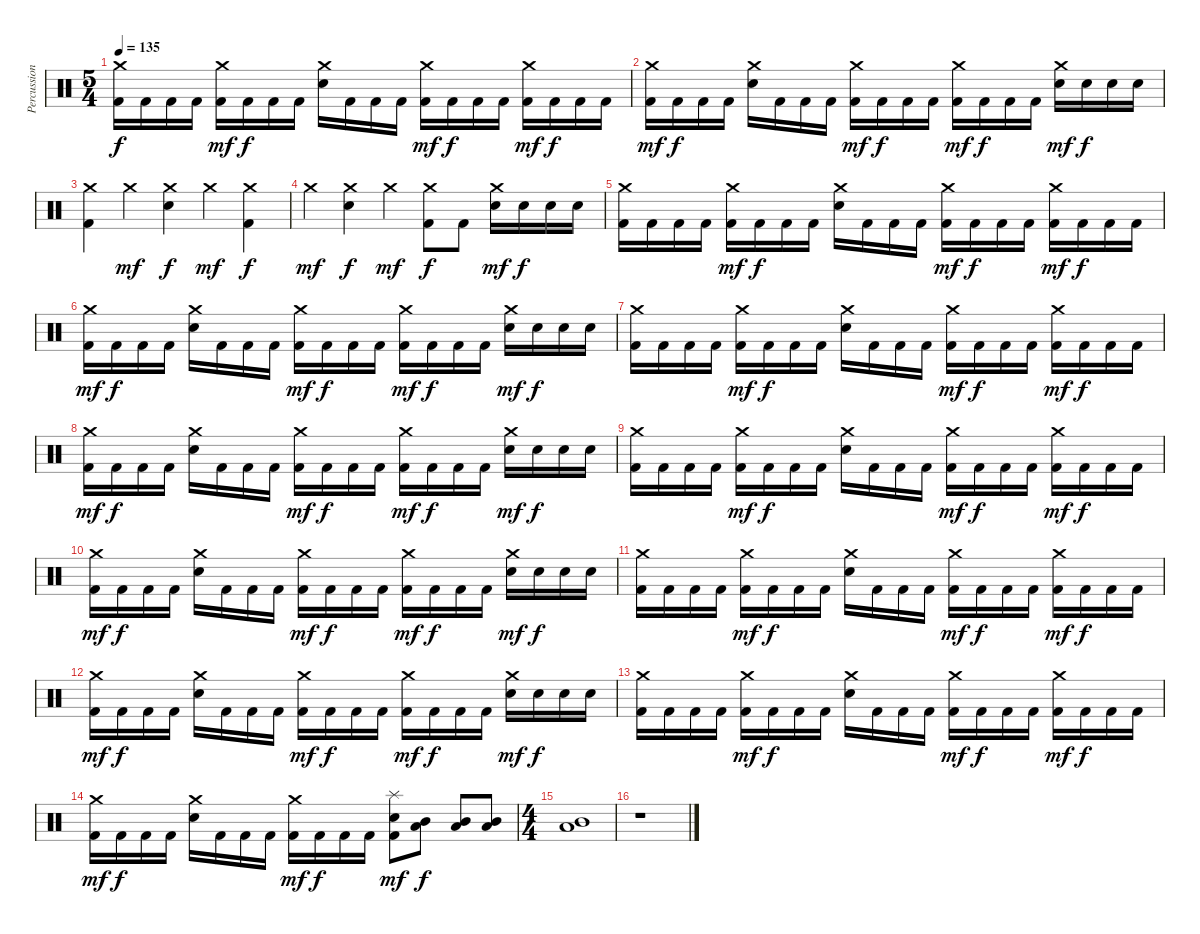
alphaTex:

\track ("Percussion" "Percussion") {instrument percussion}
\staff {score}
\articulation defaults
\ts (5 4)
\tempo 135
\clef neutral
\ks c
("Crash medium (hit)" "Kick (hit) 2").16{dy f} "Kick (hit) 2".16 "Kick (hit) 2".16 "Kick (hit) 2".16 ("Crash medium (hit)" "Kick (hit) 2").16{dy mf} "Kick (hit) 2".16{dy f} "Kick (hit) 2".16 "Kick (hit) 2".16 ("Crash medium (hit)" "Snare (hit) 2").16 "Kick (hit) 2".16 "Kick (hit) 2".16 "Kick (hit) 2".16 ("Crash medium (hit)" "Kick (hit) 2").16{dy mf} "Kick (hit) 2".16{dy f} "Kick (hit) 2".16 "Kick (hit) 2".16 ("Crash medium (hit)" "Kick (hit) 2").16{dy mf} "Kick (hit) 2".16{dy f} "Kick (hit) 2".16 "Kick (hit) 2".16 |
("Crash medium (hit)" "Kick (hit) 2").16{dy mf} "Kick (hit) 2".16{dy f} "Kick (hit) 2".16 "Kick (hit) 2".16 ("Crash medium (hit)" "Snare (hit) 2").16 "Kick (hit) 2".16 "Kick (hit) 2".16 "Kick (hit) 2".16 ("Crash medium (hit)" "Kick (hit) 2").16{dy mf} "Kick (hit) 2".16{dy f} "Kick (hit) 2".16 "Kick (hit) 2".16 ("Crash medium (hit)" "Kick (hit) 2").16{dy mf} "Kick (hit) 2".16{dy f} "Kick (hit) 2".16 "Kick (hit) 2".16 ("Crash medium (hit)" "Snare (hit) 2").16{dy mf} "Snare (hit) 2".16{dy f} "Snare (hit) 2".16 "Snare (hit) 2".16 |
("Crash medium (hit)" "Kick (hit) 2").4 "Crash medium (hit)".4{dy mf} ("Crash medium (hit)" "Snare (hit) 2").4{dy f} "Crash medium (hit)".4{dy mf} ("Crash medium (hit)" "Kick (hit) 2").4{dy f} |
"Crash medium (hit)".4{dy mf} ("Crash medium (hit)" "Snare (hit) 2").4{dy f} "Crash medium (hit)".4{dy mf} ("Crash medium (hit)" "Kick (hit) 2").8{dy f} "Kick (hit) 2".8 ("Crash medium (hit)" "Snare (hit) 2").16{dy mf} "Snare (hit) 2".16{dy f} "Snare (hit) 2".16 "Snare (hit) 2".16 |
("Crash medium (hit)" "Kick (hit) 2").16 "Kick (hit) 2".16 "Kick (hit) 2".16 "Kick (hit) 2".16 ("Crash medium (hit)" "Kick (hit) 2").16{dy mf} "Kick (hit) 2".16{dy f} "Kick (hit) 2".16 "Kick (hit) 2".16 ("Crash medium (hit)" "Snare (hit) 2").16 "Kick (hit) 2".16 "Kick (hit) 2".16 "Kick (hit) 2".16 ("Crash medium (hit)" "Kick (hit) 2").16{dy mf} "Kick (hit) 2".16{dy f} "Kick (hit) 2".16 "Kick (hit) 2".16 ("Crash medium (hit)" "Kick (hit) 2").16{dy mf} "Kick (hit) 2".16{dy f} "Kick (hit) 2".16 "Kick (hit) 2".16 |
("Crash medium (hit)" "Kick (hit) 2").16{dy mf} "Kick (hit) 2".16{dy f} "Kick (hit) 2".16 "Kick (hit) 2".16 ("Crash medium (hit)" "Snare (hit) 2").16 "Kick (hit) 2".16 "Kick (hit) 2".16 "Kick (hit) 2".16 ("Crash medium (hit)" "Kick (hit) 2").16{dy mf} "Kick (hit) 2".16{dy f} "Kick (hit) 2".16 "Kick (hit) 2".16 ("Crash medium (hit)" "Kick (hit) 2").16{dy mf} "Kick (hit) 2".16{dy f} "Kick (hit) 2".16 "Kick (hit) 2".16 ("Crash medium (hit)" "Snare (hit) 2").16{dy mf} "Snare (hit) 2".16{dy f} "Snare (hit) 2".16 "Snare (hit) 2".16 |
("Crash medium (hit)" "Kick (hit) 2").16 "Kick (hit) 2".16 "Kick (hit) 2".16 "Kick (hit) 2".16 ("Crash medium (hit)" "Kick (hit) 2").16{dy mf} "Kick (hit) 2".16{dy f} "Kick (hit) 2".16 "Kick (hit) 2".16 ("Crash medium (hit)" "Snare (hit) 2").16 "Kick (hit) 2".16 "Kick (hit) 2".16 "Kick (hit) 2".16 ("Crash medium (hit)" "Kick (hit) 2").16{dy mf} "Kick (hit) 2".16{dy f} "Kick (hit) 2".16 "Kick (hit) 2".16 ("Crash medium (hit)" "Kick (hit) 2").16{dy mf} "Kick (hit) 2".16{dy f} "Kick (hit) 2".16 "Kick (hit) 2".16 |
("Crash medium (hit)" "Kick (hit) 2").16{dy mf} "Kick (hit) 2".16{dy f} "Kick (hit) 2".16 "Kick (hit) 2".16 ("Crash medium (hit)" "Snare (hit) 2").16 "Kick (hit) 2".16 "Kick (hit) 2".16 "Kick (hit) 2".16 ("Crash medium (hit)" "Kick (hit) 2").16{dy mf} "Kick (hit) 2".16{dy f} "Kick (hit) 2".16 "Kick (hit) 2".16 ("Crash medium (hit)" "Kick (hit) 2").16{dy mf} "Kick (hit) 2".16{dy f} "Kick (hit) 2".16 "Kick (hit) 2".16 ("Crash medium (hit)" "Snare (hit) 2").16{dy mf} "Snare (hit) 2".16{dy f} "Snare (hit) 2".16 "Snare (hit) 2".16 |
("Crash medium (hit)" "Kick (hit) 2").16 "Kick (hit) 2".16 "Kick (hit) 2".16 "Kick (hit) 2".16 ("Crash medium (hit)" "Kick (hit) 2").16{dy mf} "Kick (hit) 2".16{dy f} "Kick (hit) 2".16 "Kick (hit) 2".16 ("Crash medium (hit)" "Snare (hit) 2").16 "Kick (hit) 2".16 "Kick (hit) 2".16 "Kick (hit) 2".16 ("Crash medium (hit)" "Kick (hit) 2").16{dy mf} "Kick (hit) 2".16{dy f} "Kick (hit) 2".16 "Kick (hit) 2".16 ("Crash medium (hit)" "Kick (hit) 2").16{dy mf} "Kick (hit) 2".16{dy f} "Kick (hit) 2".16 "Kick (hit) 2".16 |
("Crash medium (hit)" "Kick (hit) 2").16{dy mf} "Kick (hit) 2".16{dy f} "Kick (hit) 2".16 "Kick (hit) 2".16 ("Crash medium (hit)" "Snare (hit) 2").16 "Kick (hit) 2".16 "Kick (hit) 2".16 "Kick (hit) 2".16 ("Crash medium (hit)" "Kick (hit) 2").16{dy mf} "Kick (hit) 2".16{dy f} "Kick (hit) 2".16 "Kick (hit) 2".16 ("Crash medium (hit)" "Kick (hit) 2").16{dy mf} "Kick (hit) 2".16{dy f} "Kick (hit) 2".16 "Kick (hit) 2".16 ("Crash medium (hit)" "Snare (hit) 2").16{dy mf} "Snare (hit) 2".16{dy f} "Snare (hit) 2".16 "Snare (hit) 2".16 |
("Crash medium (hit)" "Kick (hit) 2").16 "Kick (hit) 2".16 "Kick (hit) 2".16 "Kick (hit) 2".16 ("Crash medium (hit)" "Kick (hit) 2").16{dy mf} "Kick (hit) 2".16{dy f} "Kick (hit) 2".16 "Kick (hit) 2".16 ("Crash medium (hit)" "Snare (hit) 2").16 "Kick (hit) 2".16 "Kick (hit) 2".16 "Kick (hit) 2".16 ("Crash medium (hit)" "Kick (hit) 2").16{dy mf} "Kick (hit) 2".16{dy f} "Kick (hit) 2".16 "Kick (hit) 2".16 ("Crash medium (hit)" "Kick (hit) 2").16{dy mf} "Kick (hit) 2".16{dy f} "Kick (hit) 2".16 "Kick (hit) 2".16 |
("Crash medium (hit)" "Kick (hit) 2").16{dy mf} "Kick (hit) 2".16{dy f} "Kick (hit) 2".16 "Kick (hit) 2".16 ("Crash medium (hit)" "Snare (hit) 2").16 "Kick (hit) 2".16 "Kick (hit) 2".16 "Kick (hit) 2".16 ("Crash medium (hit)" "Kick (hit) 2").16{dy mf} "Kick (hit) 2".16{dy f} "Kick (hit) 2".16 "Kick (hit) 2".16 ("Crash medium (hit)" "Kick (hit) 2").16{dy mf} "Kick (hit) 2".16{dy f} "Kick (hit) 2".16 "Kick (hit) 2".16 ("Crash medium (hit)" "Snare (hit) 2").16{dy mf} "Snare (hit) 2".16{dy f} "Snare (hit) 2".16 "Snare (hit) 2".16 |
("Crash medium (hit)" "Kick (hit) 2").16 "Kick (hit) 2".16 "Kick (hit) 2".16 "Kick (hit) 2".16 ("Crash medium (hit)" "Kick (hit) 2").16{dy mf} "Kick (hit) 2".16{dy f} "Kick (hit) 2".16 "Kick (hit) 2".16 ("Crash medium (hit)" "Snare (hit) 2").16 "Kick (hit) 2".16 "Kick (hit) 2".16 "Kick (hit) 2".16 ("Crash medium (hit)" "Kick (hit) 2").16{dy mf} "Kick (hit) 2".16{dy f} "Kick (hit) 2".16 "Kick (hit) 2".16 ("Crash medium (hit)" "Kick (hit) 2").16{dy mf} "Kick (hit) 2".16{dy f} "Kick (hit) 2".16 "Kick (hit) 2".16 |
("Crash medium (hit)" "Kick (hit) 2").16{dy mf} "Kick (hit) 2".16{dy f} "Kick (hit) 2".16 "Kick (hit) 2".16 ("Crash medium (hit)" "Snare (hit) 2").16 "Kick (hit) 2".16 "Kick (hit) 2".16 "Kick (hit) 2".16 ("Crash medium (hit)" "Kick (hit) 2").16{dy mf} "Kick (hit) 2".16{dy f} "Kick (hit) 2".16 "Kick (hit) 2".16 ("Splash (hit)" "Snare (hit) 2" "Kick (hit) 2").8{dy mf} ("Mid Tom (hit)" "Low Tom (hit)").8{dy f} ("Mid Tom (hit)" "Low Tom (hit)").8 ("Mid Tom (hit)" "Low Tom (hit)").8 |
\ts (4 4)
("Mid Tom (hit)" "Low Tom (hit)").1 |
r.1
